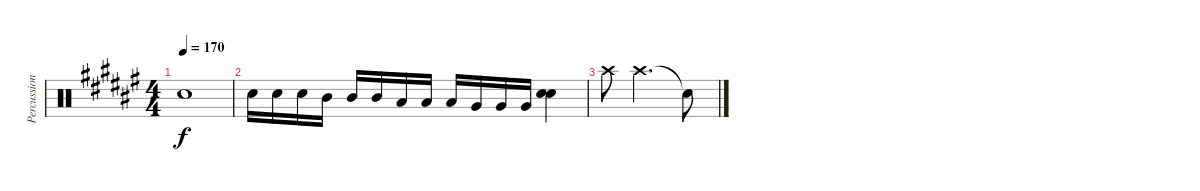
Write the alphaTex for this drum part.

\track ("Percussion" "Percussion") {instrument percussion}
\staff {score}
\articulation defaults
\ts (4 4)
\tempo 170
\clef neutral
\ks f# "Snare (hit)"{t}.1{dy f}
|
"Snare (hit) 2".16 "Snare (hit) 2".16 "Snare (hit) 2".16 "Mid Tom (hit)".16 "Mid Tom (hit)".16 "Mid Tom (hit)".16 "Low Tom (hit)".16 "Low Tom (hit)".16 "Low Tom (hit)".16 "Very Low Tom (hit)".16 "Very Low Tom (hit)".16 "Very Low Tom (hit)".16 ("Snare (hit) 2" "Snare (hit) 2").4 |
"Crash high (hit)".8 "Crash high (hit)".2{d} "Snare (hit)"{t}.8
